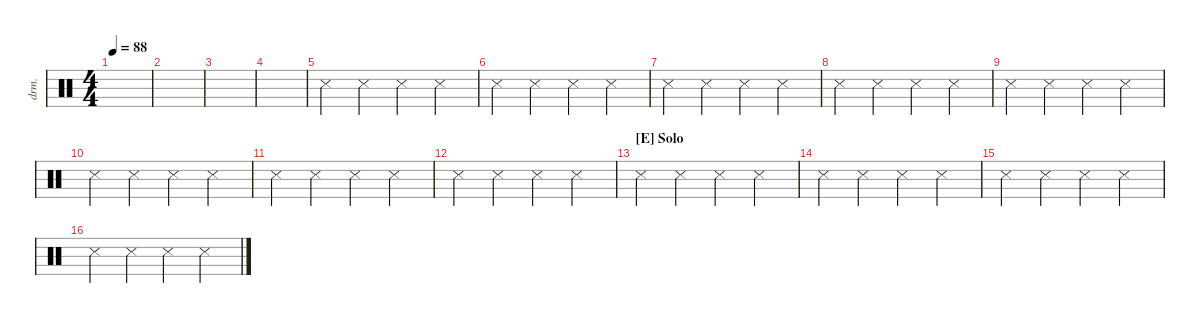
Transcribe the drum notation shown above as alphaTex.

\defaultSystemsLayout 4
\hideDynamics
\bracketExtendMode nobrackets
\otherSystemsTrackNameOrientation horizontal
\track ("Drumkit" "drm.") {instrument percussion}
\staff {score}
\articulation defaults
\ts (4 4)
\tempo 88
\clef neutral
\ks c
|
|
|
|
"Metronome (hit)".4 "Metronome (hit)".4 "Metronome (hit)".4 "Metronome (hit)".4 |
"Metronome (hit)".4 "Metronome (hit)".4 "Metronome (hit)".4 "Metronome (hit)".4 |
"Metronome (hit)".4 "Metronome (hit)".4 "Metronome (hit)".4 "Metronome (hit)".4 |
"Metronome (hit)".4 "Metronome (hit)".4 "Metronome (hit)".4 "Metronome (hit)".4 |
"Metronome (hit)".4 "Metronome (hit)".4 "Metronome (hit)".4 "Metronome (hit)".4 |
"Metronome (hit)".4 "Metronome (hit)".4 "Metronome (hit)".4 "Metronome (hit)".4 |
"Metronome (hit)".4 "Metronome (hit)".4 "Metronome (hit)".4 "Metronome (hit)".4 |
"Metronome (hit)".4 "Metronome (hit)".4 "Metronome (hit)".4 "Metronome (hit)".4 |
\section ("E" "Solo")
"Metronome (hit)".4 "Metronome (hit)".4 "Metronome (hit)".4 "Metronome (hit)".4 |
"Metronome (hit)".4 "Metronome (hit)".4 "Metronome (hit)".4 "Metronome (hit)".4 |
"Metronome (hit)".4 "Metronome (hit)".4 "Metronome (hit)".4 "Metronome (hit)".4 |
"Metronome (hit)".4 "Metronome (hit)".4 "Metronome (hit)".4 "Metronome (hit)".4
